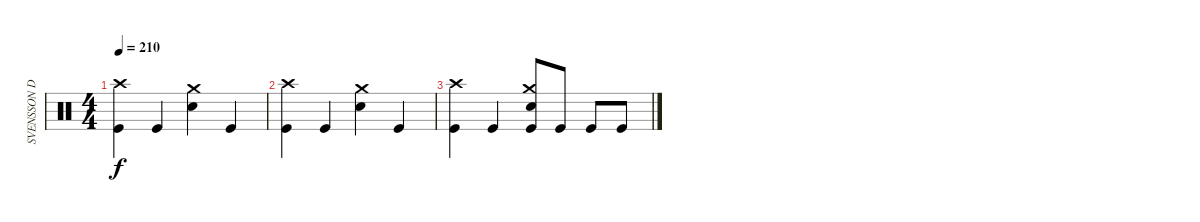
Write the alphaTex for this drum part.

\track ("SVENSSON DRUMS" "SVENSSON D") {instrument percussion}
\staff {score}
\articulation defaults
\ts (4 4)
\tempo 210
\clef neutral
\ks c
("Crash high (hit)" "Kick (hit)").4{dy f} "Kick (hit)".4 ("Crash medium (hit)" "Electric Snare (hit)").4 "Kick (hit)".4 |
("Crash high (hit)" "Kick (hit)").4 "Kick (hit)".4 ("Crash medium (hit)" "Electric Snare (hit)").4 "Kick (hit)".4 |
("Crash high (hit)" "Kick (hit)").4 "Kick (hit)".4 ("Crash medium (hit)" "Electric Snare (hit)" "Kick (hit)").8 "Kick (hit)".8 "Kick (hit)".8 "Kick (hit)".8
